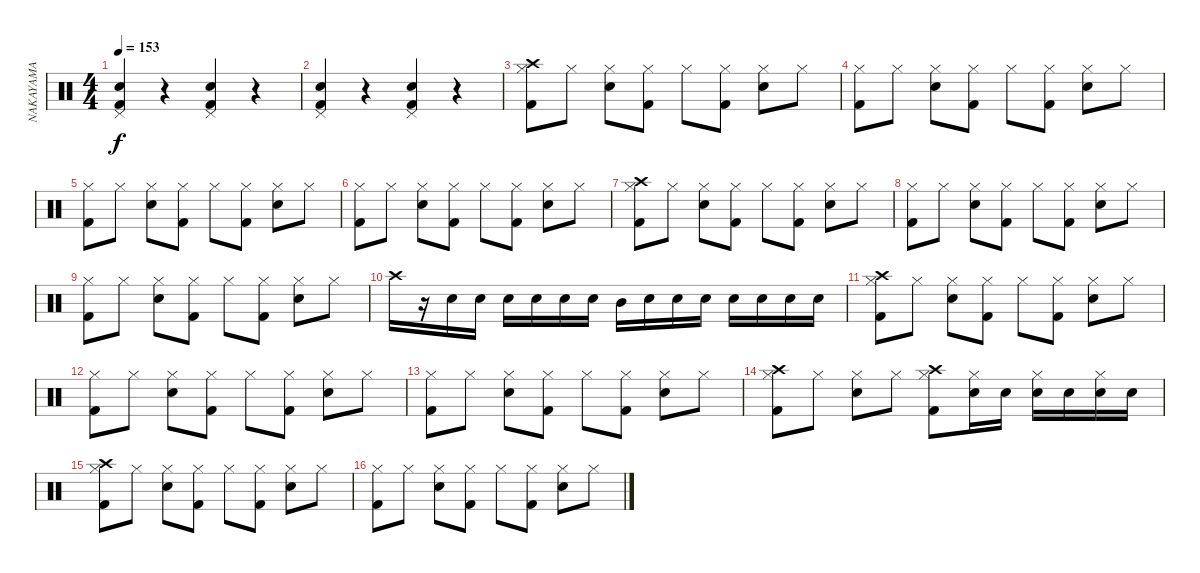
\track ("NAKAYAMA" "NAKAYAMA") {instrument percussion}
\staff {score}
\articulation defaults
\ts (4 4)
\tempo 153
\clef neutral
\ks c
("Pedal Hi-Hat (hit)" "Snare (hit) 2" "Kick (hit) 2").4{dy f} r.4 ("Pedal Hi-Hat (hit)" "Snare (hit) 2" "Kick (hit) 2").4 r.4 |
("Pedal Hi-Hat (hit)" "Snare (hit) 2" "Kick (hit) 2").4 r.4 ("Pedal Hi-Hat (hit)" "Snare (hit) 2" "Kick (hit) 2").4 r.4 |
("Crash high (hit)" "Hi-Hat (closed)" "Kick (hit) 2").8 "Hi-Hat (closed)".8 ("Hi-Hat (closed)" "Snare (hit) 2").8 ("Hi-Hat (closed)" "Kick (hit) 2").8 "Hi-Hat (closed)".8 ("Hi-Hat (closed)" "Kick (hit) 2").8 ("Hi-Hat (closed)" "Snare (hit) 2").8 "Hi-Hat (closed)".8 |
("Hi-Hat (closed)" "Kick (hit) 2").8 "Hi-Hat (closed)".8 ("Hi-Hat (closed)" "Snare (hit) 2").8 ("Hi-Hat (closed)" "Kick (hit) 2").8 "Hi-Hat (closed)".8 ("Hi-Hat (closed)" "Kick (hit) 2").8 ("Hi-Hat (closed)" "Snare (hit) 2").8 "Hi-Hat (closed)".8 |
("Hi-Hat (closed)" "Kick (hit) 2").8 "Hi-Hat (closed)".8 ("Hi-Hat (closed)" "Snare (hit) 2").8 ("Hi-Hat (closed)" "Kick (hit) 2").8 "Hi-Hat (closed)".8 ("Hi-Hat (closed)" "Kick (hit) 2").8 ("Hi-Hat (closed)" "Snare (hit) 2").8 "Hi-Hat (closed)".8 |
("Hi-Hat (closed)" "Kick (hit) 2").8 "Hi-Hat (closed)".8 ("Hi-Hat (closed)" "Snare (hit) 2").8 ("Hi-Hat (closed)" "Kick (hit) 2").8 "Hi-Hat (closed)".8 ("Hi-Hat (closed)" "Kick (hit) 2").8 ("Hi-Hat (closed)" "Snare (hit) 2").8 "Hi-Hat (closed)".8 |
("Crash high (hit)" "Hi-Hat (closed)" "Kick (hit) 2").8 "Hi-Hat (closed)".8 ("Hi-Hat (closed)" "Snare (hit) 2").8 ("Hi-Hat (closed)" "Kick (hit) 2").8 "Hi-Hat (closed)".8 ("Hi-Hat (closed)" "Kick (hit) 2").8 ("Hi-Hat (closed)" "Snare (hit) 2").8 "Hi-Hat (closed)".8 |
("Hi-Hat (closed)" "Kick (hit) 2").8 "Hi-Hat (closed)".8 ("Hi-Hat (closed)" "Snare (hit) 2").8 ("Hi-Hat (closed)" "Kick (hit) 2").8 "Hi-Hat (closed)".8 ("Hi-Hat (closed)" "Kick (hit) 2").8 ("Hi-Hat (closed)" "Snare (hit) 2").8 "Hi-Hat (closed)".8 |
("Hi-Hat (closed)" "Kick (hit) 2").8 "Hi-Hat (closed)".8 ("Hi-Hat (closed)" "Snare (hit) 2").8 ("Hi-Hat (closed)" "Kick (hit) 2").8 "Hi-Hat (closed)".8 ("Hi-Hat (closed)" "Kick (hit) 2").8 ("Hi-Hat (closed)" "Snare (hit) 2").8 "Hi-Hat (closed)".8 |
"Crash high (hit)".16 r.16 "Snare (hit) 2".16 "Snare (hit) 2".16 "Snare (hit) 2".16 "Snare (hit) 2".16 "Snare (hit) 2".16 "Snare (hit) 2".16 "Mid Tom (hit)".16 "Snare (hit) 2".16 "Snare (hit) 2".16 "Snare (hit) 2".16 "Snare (hit) 2".16 "Snare (hit) 2".16 "Snare (hit) 2".16 "Snare (hit) 2".16 |
("Crash high (hit)" "Hi-Hat (closed)" "Kick (hit) 2").8 "Hi-Hat (closed)".8 ("Hi-Hat (closed)" "Snare (hit) 2").8 ("Hi-Hat (closed)" "Kick (hit) 2").8 "Hi-Hat (closed)".8 ("Hi-Hat (closed)" "Kick (hit) 2").8 ("Hi-Hat (closed)" "Snare (hit) 2").8 "Hi-Hat (closed)".8 |
("Hi-Hat (closed)" "Kick (hit) 2").8 "Hi-Hat (closed)".8 ("Hi-Hat (closed)" "Snare (hit) 2").8 ("Hi-Hat (closed)" "Kick (hit) 2").8 "Hi-Hat (closed)".8 ("Hi-Hat (closed)" "Kick (hit) 2").8 ("Hi-Hat (closed)" "Snare (hit) 2").8 "Hi-Hat (closed)".8 |
("Hi-Hat (closed)" "Kick (hit) 2").8 "Hi-Hat (closed)".8 ("Hi-Hat (closed)" "Snare (hit) 2").8 ("Hi-Hat (closed)" "Kick (hit) 2").8 "Hi-Hat (closed)".8 ("Hi-Hat (closed)" "Kick (hit) 2").8 ("Hi-Hat (closed)" "Snare (hit) 2").8 "Hi-Hat (closed)".8 |
("Crash high (hit)" "Hi-Hat (closed)" "Kick (hit) 2").8 "Hi-Hat (closed)".8 ("Hi-Hat (closed)" "Snare (hit) 2").8 "Hi-Hat (closed)".8 ("Crash high (hit)" "Hi-Hat (closed)" "Kick (hit) 2").8 ("Hi-Hat (closed)" "Snare (hit) 2").16 "Snare (hit) 2".16 ("Hi-Hat (closed)" "Snare (hit) 2").16 "Snare (hit) 2".16 ("Hi-Hat (closed)" "Snare (hit) 2").16 "Snare (hit) 2".16 |
("Crash high (hit)" "Hi-Hat (closed)" "Kick (hit) 2").8 "Hi-Hat (closed)".8 ("Hi-Hat (closed)" "Snare (hit) 2").8 ("Hi-Hat (closed)" "Kick (hit) 2").8 "Hi-Hat (closed)".8 ("Hi-Hat (closed)" "Kick (hit) 2").8 ("Hi-Hat (closed)" "Snare (hit) 2").8 "Hi-Hat (closed)".8 |
("Hi-Hat (closed)" "Kick (hit) 2").8 "Hi-Hat (closed)".8 ("Hi-Hat (closed)" "Snare (hit) 2").8 ("Hi-Hat (closed)" "Kick (hit) 2").8 "Hi-Hat (closed)".8 ("Hi-Hat (closed)" "Kick (hit) 2").8 ("Hi-Hat (closed)" "Snare (hit) 2").8 "Hi-Hat (closed)".8
